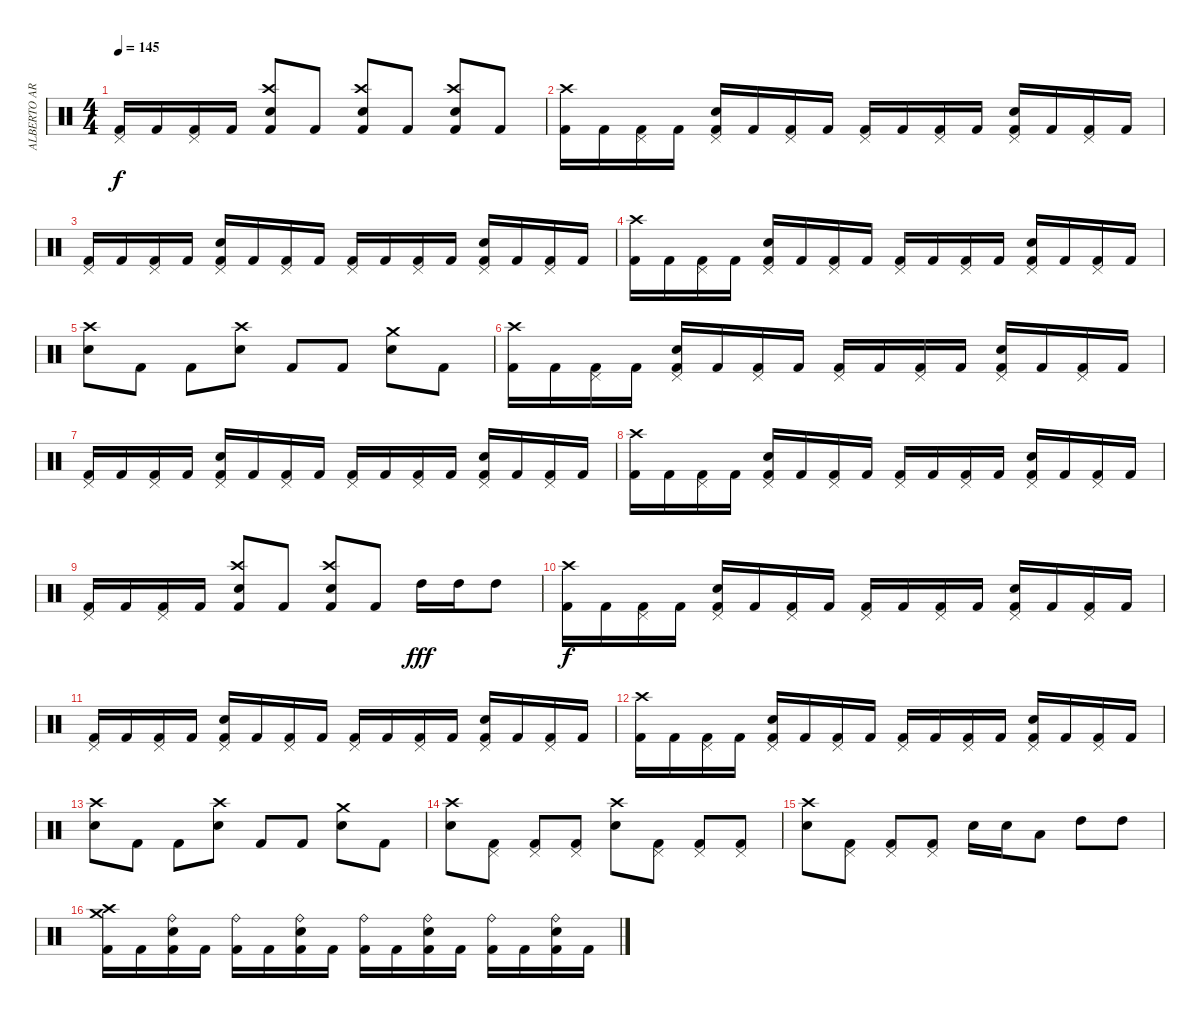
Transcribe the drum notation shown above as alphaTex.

\track ("ALBERTO ARDINES" "ALBERTO AR") {instrument percussion}
\staff {score}
\articulation defaults
\ts (4 4)
\tempo 145
\clef neutral
\ks c
("Pedal Hi-Hat (hit)" "Kick (hit) 2").16{dy f} "Kick (hit) 2".16 ("Pedal Hi-Hat (hit)" "Kick (hit) 2").16 "Kick (hit) 2".16 ("Crash high (hit)" "Electric Snare (hit)" "Kick (hit) 2").8 "Kick (hit) 2".8 ("Crash high (hit)" "Electric Snare (hit)" "Kick (hit) 2").8 "Kick (hit) 2".8 ("Crash high (hit)" "Electric Snare (hit)" "Kick (hit) 2").8 "Kick (hit) 2".8 |
("Crash high (hit)" "Kick (hit) 2").16 "Kick (hit) 2".16 ("Pedal Hi-Hat (hit)" "Kick (hit) 2").16 "Kick (hit) 2".16 ("Pedal Hi-Hat (hit)" "Electric Snare (hit)" "Kick (hit) 2").16 "Kick (hit) 2".16 ("Pedal Hi-Hat (hit)" "Kick (hit) 2").16 "Kick (hit) 2".16 ("Pedal Hi-Hat (hit)" "Kick (hit) 2").16 "Kick (hit) 2".16 ("Pedal Hi-Hat (hit)" "Kick (hit) 2").16 "Kick (hit) 2".16 ("Pedal Hi-Hat (hit)" "Electric Snare (hit)" "Kick (hit) 2").16 "Kick (hit) 2".16 ("Pedal Hi-Hat (hit)" "Kick (hit) 2").16 "Kick (hit) 2".16 |
("Pedal Hi-Hat (hit)" "Kick (hit) 2").16 "Kick (hit) 2".16 ("Pedal Hi-Hat (hit)" "Kick (hit) 2").16 "Kick (hit) 2".16 ("Pedal Hi-Hat (hit)" "Electric Snare (hit)" "Kick (hit) 2").16 "Kick (hit) 2".16 ("Pedal Hi-Hat (hit)" "Kick (hit) 2").16 "Kick (hit) 2".16 ("Pedal Hi-Hat (hit)" "Kick (hit) 2").16 "Kick (hit) 2".16 ("Pedal Hi-Hat (hit)" "Kick (hit) 2").16 "Kick (hit) 2".16 ("Pedal Hi-Hat (hit)" "Electric Snare (hit)" "Kick (hit) 2").16 "Kick (hit) 2".16 ("Pedal Hi-Hat (hit)" "Kick (hit) 2").16 "Kick (hit) 2".16 |
("Crash high (hit)" "Kick (hit) 2").16 "Kick (hit) 2".16 ("Pedal Hi-Hat (hit)" "Kick (hit) 2").16 "Kick (hit) 2".16 ("Pedal Hi-Hat (hit)" "Electric Snare (hit)" "Kick (hit) 2").16 "Kick (hit) 2".16 ("Pedal Hi-Hat (hit)" "Kick (hit) 2").16 "Kick (hit) 2".16 ("Pedal Hi-Hat (hit)" "Kick (hit) 2").16 "Kick (hit) 2".16 ("Pedal Hi-Hat (hit)" "Kick (hit) 2").16 "Kick (hit) 2".16 ("Pedal Hi-Hat (hit)" "Electric Snare (hit)" "Kick (hit) 2").16 "Kick (hit) 2".16 ("Pedal Hi-Hat (hit)" "Kick (hit) 2").16 "Kick (hit) 2".16 |
("Crash high (hit)" "Electric Snare (hit)").8 "Kick (hit) 2".8 "Kick (hit) 2".8 ("Crash high (hit)" "Electric Snare (hit)").8 "Kick (hit) 2".8 "Kick (hit) 2".8 ("Crash medium (hit)" "Electric Snare (hit)").8 "Kick (hit) 2".8 |
("Crash high (hit)" "Kick (hit) 2").16 "Kick (hit) 2".16 ("Pedal Hi-Hat (hit)" "Kick (hit) 2").16 "Kick (hit) 2".16 ("Pedal Hi-Hat (hit)" "Electric Snare (hit)" "Kick (hit) 2").16 "Kick (hit) 2".16 ("Pedal Hi-Hat (hit)" "Kick (hit) 2").16 "Kick (hit) 2".16 ("Pedal Hi-Hat (hit)" "Kick (hit) 2").16 "Kick (hit) 2".16 ("Pedal Hi-Hat (hit)" "Kick (hit) 2").16 "Kick (hit) 2".16 ("Pedal Hi-Hat (hit)" "Electric Snare (hit)" "Kick (hit) 2").16 "Kick (hit) 2".16 ("Pedal Hi-Hat (hit)" "Kick (hit) 2").16 "Kick (hit) 2".16 |
("Pedal Hi-Hat (hit)" "Kick (hit) 2").16 "Kick (hit) 2".16 ("Pedal Hi-Hat (hit)" "Kick (hit) 2").16 "Kick (hit) 2".16 ("Pedal Hi-Hat (hit)" "Electric Snare (hit)" "Kick (hit) 2").16 "Kick (hit) 2".16 ("Pedal Hi-Hat (hit)" "Kick (hit) 2").16 "Kick (hit) 2".16 ("Pedal Hi-Hat (hit)" "Kick (hit) 2").16 "Kick (hit) 2".16 ("Pedal Hi-Hat (hit)" "Kick (hit) 2").16 "Kick (hit) 2".16 ("Pedal Hi-Hat (hit)" "Electric Snare (hit)" "Kick (hit) 2").16 "Kick (hit) 2".16 ("Pedal Hi-Hat (hit)" "Kick (hit) 2").16 "Kick (hit) 2".16 |
("Crash high (hit)" "Kick (hit) 2").16 "Kick (hit) 2".16 ("Pedal Hi-Hat (hit)" "Kick (hit) 2").16 "Kick (hit) 2".16 ("Pedal Hi-Hat (hit)" "Electric Snare (hit)" "Kick (hit) 2").16 "Kick (hit) 2".16 ("Pedal Hi-Hat (hit)" "Kick (hit) 2").16 "Kick (hit) 2".16 ("Pedal Hi-Hat (hit)" "Kick (hit) 2").16 "Kick (hit) 2".16 ("Pedal Hi-Hat (hit)" "Kick (hit) 2").16 "Kick (hit) 2".16 ("Pedal Hi-Hat (hit)" "Electric Snare (hit)" "Kick (hit) 2").16 "Kick (hit) 2".16 ("Pedal Hi-Hat (hit)" "Kick (hit) 2").16 "Kick (hit) 2".16 |
("Pedal Hi-Hat (hit)" "Kick (hit) 2").16 "Kick (hit) 2".16 ("Pedal Hi-Hat (hit)" "Kick (hit) 2").16 "Kick (hit) 2".16 ("Crash high (hit)" "Electric Snare (hit)" "Kick (hit) 2").8 "Kick (hit) 2".8 ("Crash high (hit)" "Electric Snare (hit)" "Kick (hit) 2").8 "Kick (hit) 2".8 "High Tom (hit)".16{dy fff} "High Tom (hit)".16 "High Tom (hit)".8 |
("Crash high (hit)" "Kick (hit) 2").16{dy f} "Kick (hit) 2".16 ("Pedal Hi-Hat (hit)" "Kick (hit) 2").16 "Kick (hit) 2".16 ("Pedal Hi-Hat (hit)" "Electric Snare (hit)" "Kick (hit) 2").16 "Kick (hit) 2".16 ("Pedal Hi-Hat (hit)" "Kick (hit) 2").16 "Kick (hit) 2".16 ("Pedal Hi-Hat (hit)" "Kick (hit) 2").16 "Kick (hit) 2".16 ("Pedal Hi-Hat (hit)" "Kick (hit) 2").16 "Kick (hit) 2".16 ("Pedal Hi-Hat (hit)" "Electric Snare (hit)" "Kick (hit) 2").16 "Kick (hit) 2".16 ("Pedal Hi-Hat (hit)" "Kick (hit) 2").16 "Kick (hit) 2".16 |
("Pedal Hi-Hat (hit)" "Kick (hit) 2").16 "Kick (hit) 2".16 ("Pedal Hi-Hat (hit)" "Kick (hit) 2").16 "Kick (hit) 2".16 ("Pedal Hi-Hat (hit)" "Electric Snare (hit)" "Kick (hit) 2").16 "Kick (hit) 2".16 ("Pedal Hi-Hat (hit)" "Kick (hit) 2").16 "Kick (hit) 2".16 ("Pedal Hi-Hat (hit)" "Kick (hit) 2").16 "Kick (hit) 2".16 ("Pedal Hi-Hat (hit)" "Kick (hit) 2").16 "Kick (hit) 2".16 ("Pedal Hi-Hat (hit)" "Electric Snare (hit)" "Kick (hit) 2").16 "Kick (hit) 2".16 ("Pedal Hi-Hat (hit)" "Kick (hit) 2").16 "Kick (hit) 2".16 |
("Crash high (hit)" "Kick (hit) 2").16 "Kick (hit) 2".16 ("Pedal Hi-Hat (hit)" "Kick (hit) 2").16 "Kick (hit) 2".16 ("Pedal Hi-Hat (hit)" "Electric Snare (hit)" "Kick (hit) 2").16 "Kick (hit) 2".16 ("Pedal Hi-Hat (hit)" "Kick (hit) 2").16 "Kick (hit) 2".16 ("Pedal Hi-Hat (hit)" "Kick (hit) 2").16 "Kick (hit) 2".16 ("Pedal Hi-Hat (hit)" "Kick (hit) 2").16 "Kick (hit) 2".16 ("Pedal Hi-Hat (hit)" "Electric Snare (hit)" "Kick (hit) 2").16 "Kick (hit) 2".16 ("Pedal Hi-Hat (hit)" "Kick (hit) 2").16 "Kick (hit) 2".16 |
("Crash high (hit)" "Electric Snare (hit)").8 "Kick (hit) 2".8 "Kick (hit) 2".8 ("Crash high (hit)" "Electric Snare (hit)").8 "Kick (hit) 2".8 "Kick (hit) 2".8 ("Crash medium (hit)" "Electric Snare (hit)").8 "Kick (hit) 2".8 |
("Crash high (hit)" "Electric Snare (hit)").8 ("Pedal Hi-Hat (hit)" "Kick (hit) 2").8 ("Pedal Hi-Hat (hit)" "Kick (hit) 2").8 ("Pedal Hi-Hat (hit)" "Kick (hit) 2").8 ("Crash high (hit)" "Electric Snare (hit)").8 ("Pedal Hi-Hat (hit)" "Kick (hit) 2").8 ("Pedal Hi-Hat (hit)" "Kick (hit) 2").8 ("Pedal Hi-Hat (hit)" "Kick (hit) 2").8 |
("Crash high (hit)" "Electric Snare (hit)").8 ("Pedal Hi-Hat (hit)" "Kick (hit) 2").8 ("Pedal Hi-Hat (hit)" "Kick (hit) 2").8 ("Pedal Hi-Hat (hit)" "Kick (hit) 2").8 "Electric Snare (hit)".16 "Electric Snare (hit)".16 "Low Tom (hit)".8 "High Tom (hit)".8 "High Tom (hit)".8 |
("Crash high (hit)" "Crash medium (hit)" "Kick (hit) 2").16 "Kick (hit) 2".16 ("Ride (bell)" "Electric Snare (hit)" "Kick (hit) 2").16 "Kick (hit) 2".16 ("Ride (bell)" "Kick (hit) 2").16 "Kick (hit) 2".16 ("Ride (bell)" "Electric Snare (hit)" "Kick (hit) 2").16 "Kick (hit) 2".16 ("Ride (bell)" "Kick (hit) 2").16 "Kick (hit) 2".16 ("Ride (bell)" "Electric Snare (hit)" "Kick (hit) 2").16 "Kick (hit) 2".16 ("Ride (bell)" "Kick (hit) 2").16 "Kick (hit) 2".16 ("Ride (bell)" "Electric Snare (hit)" "Kick (hit) 2").16 "Kick (hit) 2".16
